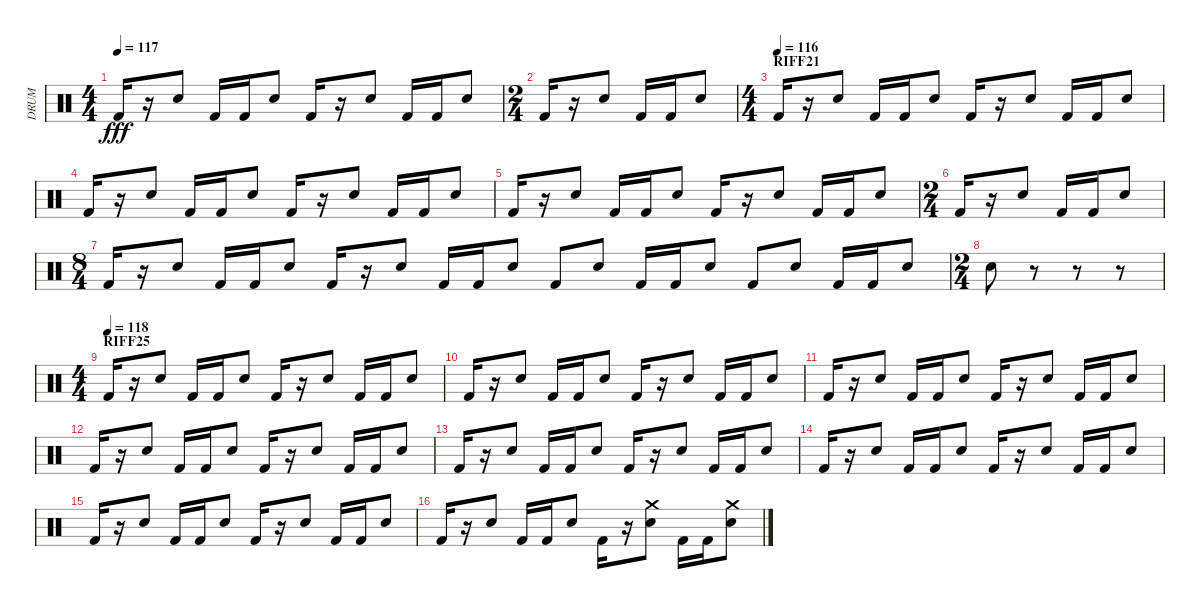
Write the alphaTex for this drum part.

\track ("DRUM" "DRUM") {instrument percussion}
\staff {score}
\articulation defaults
\ts (4 4)
\tempo 117
\clef neutral
\ks c "Kick (hit) 2".16{dy fff}
r.16 "Electric Snare (hit)".8 "Kick (hit) 2".16 "Kick (hit) 2".16 "Electric Snare (hit)".8 "Kick (hit) 2".16 r.16 "Electric Snare (hit)".8 "Kick (hit) 2".16 "Kick (hit) 2".16 "Electric Snare (hit)".8 |
\ts (2 4)
"Kick (hit) 2".16 r.16 "Electric Snare (hit)".8 "Kick (hit) 2".16 "Kick (hit) 2".16 "Electric Snare (hit)".8 |
\ts (4 4)
\section ("" "RIFF21")
\tempo (116)
"Kick (hit) 2".16 r.16 "Electric Snare (hit)".8 "Kick (hit) 2".16 "Kick (hit) 2".16 "Electric Snare (hit)".8 "Kick (hit) 2".16 r.16 "Electric Snare (hit)".8 "Kick (hit) 2".16 "Kick (hit) 2".16 "Electric Snare (hit)".8 |
"Kick (hit) 2".16 r.16 "Electric Snare (hit)".8 "Kick (hit) 2".16 "Kick (hit) 2".16 "Electric Snare (hit)".8 "Kick (hit) 2".16 r.16 "Electric Snare (hit)".8 "Kick (hit) 2".16 "Kick (hit) 2".16 "Electric Snare (hit)".8 |
"Kick (hit) 2".16 r.16 "Electric Snare (hit)".8 "Kick (hit) 2".16 "Kick (hit) 2".16 "Electric Snare (hit)".8 "Kick (hit) 2".16 r.16 "Electric Snare (hit)".8 "Kick (hit) 2".16 "Kick (hit) 2".16 "Electric Snare (hit)".8 |
\ts (2 4)
"Kick (hit) 2".16 r.16 "Electric Snare (hit)".8 "Kick (hit) 2".16 "Kick (hit) 2".16 "Electric Snare (hit)".8 |
\ts (8 4)
"Kick (hit) 2".16 r.16 "Electric Snare (hit)".8 "Kick (hit) 2".16 "Kick (hit) 2".16 "Electric Snare (hit)".8 "Kick (hit) 2".16 r.16 "Electric Snare (hit)".8 "Kick (hit) 2".16 "Kick (hit) 2".16 "Electric Snare (hit)".8 "Kick (hit) 2".8 "Electric Snare (hit)".8 "Kick (hit) 2".16 "Kick (hit) 2".16 "Electric Snare (hit)".8 "Kick (hit) 2".8 "Electric Snare (hit)".8 "Kick (hit) 2".16 "Kick (hit) 2".16 "Electric Snare (hit)".8 |
\ts (2 4)
"Electric Snare (hit)".8 r.8 r.8 r.8 |
\ts (4 4)
\section ("" "RIFF25")
\tempo (118)
"Kick (hit) 2".16 r.16 "Electric Snare (hit)".8 "Kick (hit) 2".16 "Kick (hit) 2".16 "Electric Snare (hit)".8 "Kick (hit) 2".16 r.16 "Electric Snare (hit)".8 "Kick (hit) 2".16 "Kick (hit) 2".16 "Electric Snare (hit)".8 |
"Kick (hit) 2".16 r.16 "Electric Snare (hit)".8 "Kick (hit) 2".16 "Kick (hit) 2".16 "Electric Snare (hit)".8 "Kick (hit) 2".16 r.16 "Electric Snare (hit)".8 "Kick (hit) 2".16 "Kick (hit) 2".16 "Electric Snare (hit)".8 |
"Kick (hit) 2".16 r.16 "Electric Snare (hit)".8 "Kick (hit) 2".16 "Kick (hit) 2".16 "Electric Snare (hit)".8 "Kick (hit) 2".16 r.16 "Electric Snare (hit)".8 "Kick (hit) 2".16 "Kick (hit) 2".16 "Electric Snare (hit)".8 |
"Kick (hit) 2".16 r.16 "Electric Snare (hit)".8 "Kick (hit) 2".16 "Kick (hit) 2".16 "Electric Snare (hit)".8 "Kick (hit) 2".16 r.16 "Electric Snare (hit)".8 "Kick (hit) 2".16 "Kick (hit) 2".16 "Electric Snare (hit)".8 |
"Kick (hit) 2".16 r.16 "Electric Snare (hit)".8 "Kick (hit) 2".16 "Kick (hit) 2".16 "Electric Snare (hit)".8 "Kick (hit) 2".16 r.16 "Electric Snare (hit)".8 "Kick (hit) 2".16 "Kick (hit) 2".16 "Electric Snare (hit)".8 |
"Kick (hit) 2".16 r.16 "Electric Snare (hit)".8 "Kick (hit) 2".16 "Kick (hit) 2".16 "Electric Snare (hit)".8 "Kick (hit) 2".16 r.16 "Electric Snare (hit)".8 "Kick (hit) 2".16 "Kick (hit) 2".16 "Electric Snare (hit)".8 |
"Kick (hit) 2".16 r.16 "Electric Snare (hit)".8 "Kick (hit) 2".16 "Kick (hit) 2".16 "Electric Snare (hit)".8 "Kick (hit) 2".16 r.16 "Electric Snare (hit)".8 "Kick (hit) 2".16 "Kick (hit) 2".16 "Electric Snare (hit)".8 |
"Kick (hit) 2".16 r.16 "Electric Snare (hit)".8 "Kick (hit) 2".16 "Kick (hit) 2".16 "Electric Snare (hit)".8 "Kick (hit) 2".16 r.16 ("Electric Snare (hit)" "Crash medium (hit)").8 "Kick (hit) 2".16 "Kick (hit) 2".16 ("Electric Snare (hit)" "Crash medium (hit)").8
